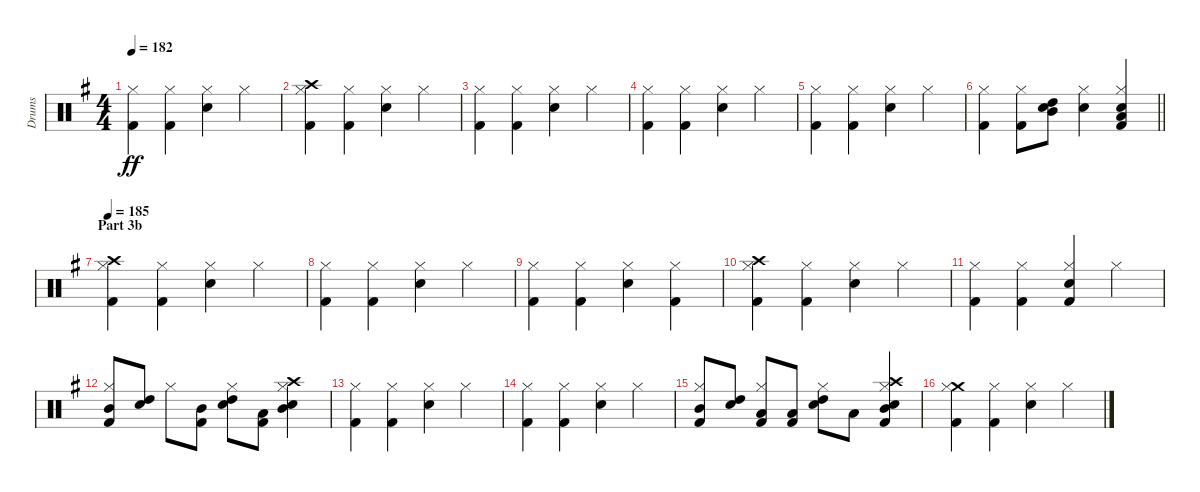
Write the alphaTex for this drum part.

\track ("Drums" "Drums") {instrument percussion}
\staff {score}
\articulation defaults
\ts (4 4)
\tempo 182
\clef neutral
\ks g
("Kick (hit) 2" "Hi-Hat (closed)").4{dy ff} ("Kick (hit) 2" "Hi-Hat (closed)").4 ("Electric Snare (hit)" "Hi-Hat (closed)").4 "Hi-Hat (closed)".4 |
("Crash high (hit)" "Hi-Hat (closed)" "Kick (hit) 2").4 ("Hi-Hat (closed)" "Kick (hit) 2").4 ("Hi-Hat (closed)" "Electric Snare (hit)").4 "Hi-Hat (closed)".4 |
("Hi-Hat (closed)" "Kick (hit) 2").4 ("Hi-Hat (closed)" "Kick (hit) 2").4 ("Hi-Hat (closed)" "Electric Snare (hit)").4 "Hi-Hat (closed)".4 |
("Hi-Hat (closed)" "Kick (hit) 2").4 ("Hi-Hat (closed)" "Kick (hit) 2").4 ("Electric Snare (hit)" "Hi-Hat (closed)").4 "Hi-Hat (closed)".4 |
("Kick (hit) 2" "Hi-Hat (closed)").4 ("Kick (hit) 2" "Hi-Hat (closed)").4 ("Electric Snare (hit)" "Hi-Hat (closed)").4 "Hi-Hat (closed)".4 |
\barLineRight lightlight
("Hi-Hat (closed)" "Kick (hit) 2").4 ("Hi-Hat (closed)" "Kick (hit) 2").8 ("High Tom (hit)" "Mid Tom (hit)" "Electric Snare (hit)").8 ("Electric Snare (hit)" "Hi-Hat (closed)").4 ("Electric Snare (hit)" "Kick (hit) 2" "Low Tom (hit)" "Hi-Hat (closed)").4 |
\section ("" "Part 3b")
\tempo 185
("Crash high (hit)" "Hi-Hat (closed)" "Kick (hit) 2").4 ("Hi-Hat (closed)" "Kick (hit) 2").4 ("Hi-Hat (closed)" "Electric Snare (hit)").4 "Hi-Hat (closed)".4 |
("Hi-Hat (closed)" "Kick (hit) 2").4 ("Hi-Hat (closed)" "Kick (hit) 2").4 ("Electric Snare (hit)" "Hi-Hat (closed)").4 "Hi-Hat (closed)".4 |
("Kick (hit) 2" "Hi-Hat (closed)").4 ("Kick (hit) 2" "Hi-Hat (closed)").4 ("Electric Snare (hit)" "Hi-Hat (closed)").4 ("Kick (hit) 2" "Hi-Hat (closed)").4 |
("Crash high (hit)" "Hi-Hat (closed)" "Kick (hit) 2").4 ("Hi-Hat (closed)" "Kick (hit) 2").4 ("Hi-Hat (closed)" "Electric Snare (hit)").4 "Hi-Hat (closed)".4 |
("Hi-Hat (closed)" "Kick (hit) 2").4 ("Hi-Hat (closed)" "Kick (hit) 2").4 ("Kick (hit) 2" "Hi-Hat (closed)" "Electric Snare (hit)").4 "Hi-Hat (closed)".4 |
("Mid Tom (hit)" "Hi-Hat (closed)" "Kick (hit) 2").8 ("Electric Snare (hit)" "High Tom (hit)").8 "Hi-Hat (closed)".8 ("Mid Tom (hit)" "Kick (hit) 2").8 ("High Tom (hit)" "Electric Snare (hit)" "Hi-Hat (closed)").8 ("Kick (hit) 2" "Low Tom (hit)").8 ("Electric Snare (hit)" "Crash high (hit)" "Mid Tom (hit)" "Hi-Hat (closed)").4 |
("Kick (hit) 2" "Hi-Hat (closed)").4 ("Kick (hit) 2" "Hi-Hat (closed)").4 ("Electric Snare (hit)" "Hi-Hat (closed)").4 "Hi-Hat (closed)".4 |
("Hi-Hat (closed)" "Kick (hit) 2").4 ("Hi-Hat (closed)" "Kick (hit) 2").4 ("Electric Snare (hit)" "Hi-Hat (closed)").4 "Hi-Hat (closed)".4 |
("Mid Tom (hit)" "Kick (hit) 2" "Hi-Hat (closed)").8 ("Electric Snare (hit)" "High Tom (hit)").8 ("Low Tom (hit)" "Kick (hit) 2" "Hi-Hat (closed)").8 ("Kick (hit) 2" "Low Tom (hit)").8 ("High Tom (hit)" "Electric Snare (hit)" "Hi-Hat (closed)").8 "Low Tom (hit)".8 ("Electric Snare (hit)" "Kick (hit) 2" "Crash high (hit)" "Mid Tom (hit)" "Hi-Hat (closed)").4 |
("Crash medium (hit)" "Hi-Hat (closed)" "Kick (hit) 2").4 ("Hi-Hat (closed)" "Kick (hit) 2").4 ("Hi-Hat (closed)" "Electric Snare (hit)").4 "Hi-Hat (closed)".4
